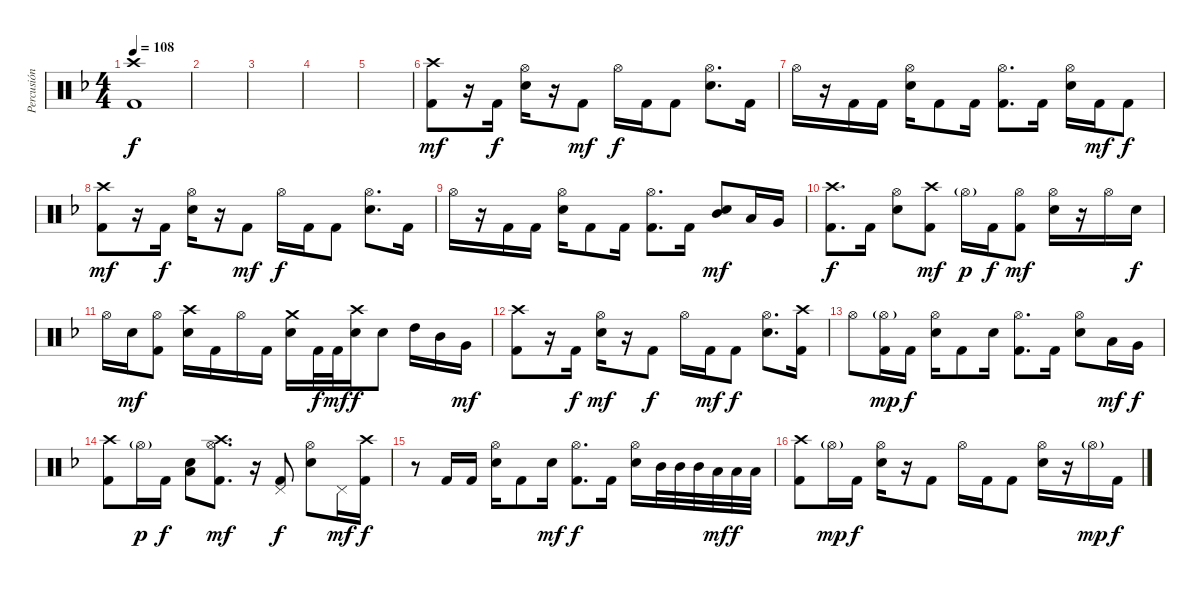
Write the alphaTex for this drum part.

\track ("Percusión" "Percusión") {instrument percussion}
\staff {score}
\articulation defaults
\ts (4 4)
\tempo 108
\clef neutral
\ks f
("Crash high (hit)" "Kick (hit) 2").1{dy f} |
|
|
|
|
("Crash high (hit)" "Kick (hit) 2").8{dy mf} r.16 "Kick (hit) 2".16{dy f} ("Hi-Hat (open)" "Snare (hit) 2").16 r.16 "Kick (hit) 2".8{dy mf} "Hi-Hat (open)".16{dy f} "Kick (hit) 2".16 "Kick (hit) 2".8 ("Hi-Hat (open)" "Snare (hit) 2").8{d} "Kick (hit) 2".16 |
"Hi-Hat (open)".16 r.16 "Kick (hit) 2".16 "Kick (hit) 2".16 ("Hi-Hat (open)" "Snare (hit) 2").16 "Kick (hit) 2".8 "Kick (hit) 2".16 ("Hi-Hat (open)" "Kick (hit) 2").8{d} "Kick (hit) 2".16 ("Hi-Hat (open)" "Snare (hit) 2").16 "Kick (hit) 2".16{dy mf} "Kick (hit) 2".8{dy f} |
("Crash high (hit)" "Kick (hit) 2").8{dy mf} r.16 "Kick (hit) 2".16{dy f} ("Hi-Hat (open)" "Snare (hit) 2").16 r.16 "Kick (hit) 2".8{dy mf} "Hi-Hat (open)".16{dy f} "Kick (hit) 2".16 "Kick (hit) 2".8 ("Hi-Hat (open)" "Snare (hit) 2").8{d} "Kick (hit) 2".16 |
"Hi-Hat (open)".16 r.16 "Kick (hit) 2".16 "Kick (hit) 2".16 ("Hi-Hat (open)" "Snare (hit) 2").16 "Kick (hit) 2".8 "Kick (hit) 2".16 ("Hi-Hat (open)" "Kick (hit) 2").8{d} "Kick (hit) 2".16 ("Mid Tom (hit)" "Snare (hit) 2").8{dy mf} "Low Tom (hit)".16 "Very Low Tom (hit)".16 |
("Crash high (hit)" "Kick (hit) 2").8{d dy f} "Kick (hit) 2".16 ("Hi-Hat (open)" "Snare (hit) 2").8 ("Crash high (hit)" "Kick (hit) 2").8{dy mf} "Hi-Hat (open)"{g}.16{dy p} "Kick (hit) 2".16{dy f} ("Hi-Hat (open)" "Kick (hit) 2").8{dy mf} ("Hi-Hat (open)" "Snare (hit) 2").16 r.16 "Hi-Hat (open)".16 "Snare (hit) 2".16{dy f} |
"Hi-Hat (open)".16 "Snare (hit) 2".16{dy mf} ("Hi-Hat (open)" "Kick (hit) 2").8 ("Crash high (hit)" "Snare (hit) 2").16 "Kick (hit) 2".16 "Hi-Hat (open)".16 "Kick (hit) 2".16 ("Crash medium (hit)" "Snare (hit) 2").16 "Kick (hit) 2".32{dy f} "Kick (hit) 2".32{dy mf} ("Crash high (hit)" "Snare (hit) 2").16{dy f} "Snare (hit) 2".8 "High Tom (hit)".16 "Mid Tom (hit)".16 "Very Low Tom (hit)".16{dy mf} |
("Crash high (hit)" "Kick (hit) 2").8 r.16 "Kick (hit) 2".16{dy f} ("Hi-Hat (open)" "Snare (hit) 2").16{dy mf} r.16 "Kick (hit) 2".8{dy f} "Hi-Hat (open)".16 "Kick (hit) 2".16{dy mf} "Kick (hit) 2".8{dy f} ("Hi-Hat (open)" "Snare (hit) 2").8{d} ("Crash high (hit)" "Kick (hit) 2").16 |
"Hi-Hat (open)".8 ("Hi-Hat (open)"{g} "Kick (hit) 2").16{dy mp} "Kick (hit) 2".16{dy f} ("Hi-Hat (open)" "Snare (hit) 2").16 "Kick (hit) 2".8 "Snare (hit) 2".16 ("Hi-Hat (open)" "Kick (hit) 2").8{d} "Kick (hit) 2".16 ("Hi-Hat (open)" "Snare (hit) 2").8 "Low Tom (hit)".16{dy mf} "Very Low Tom (hit)".16{dy f} |
("Crash high (hit)" "Kick (hit) 2").8 "Hi-Hat (open)"{g}.16{dy p} "Kick (hit) 2".16{dy f} ("Low Floor Tom (hit)" "Snare (hit) 2").8 ("Crash high (hit)" "Hi-Hat (open)" "Kick (hit) 2").8{d dy mf} r.16 ("Pedal Hi-Hat (hit)" "Kick (hit) 2").8{dy f} ("Hi-Hat (open)" "Snare (hit) 2").8 "Pedal Hi-Hat (hit)".16{dy mf} ("Crash high (hit)" "Kick (hit) 2").16{dy f} |
r.8 "Kick (hit) 2".16 "Kick (hit) 2".16 ("Hi-Hat (open)" "Snare (hit) 2").16 "Kick (hit) 2".8 "Snare (hit) 2".16{dy mf} ("Hi-Hat (open)" "Kick (hit) 2").8{d dy f} "Kick (hit) 2".16 ("Hi-Hat (open)" "Snare (hit) 2").16 "Mid Tom (hit)".32 "Mid Tom (hit)".32 "Mid Tom (hit)".32 "Low Tom (hit)".32{dy mf} "Low Tom (hit)".32{dy f} "Low Tom (hit)".32 |
("Crash high (hit)" "Kick (hit) 2").8 "Hi-Hat (open)"{g}.16{dy mp} "Kick (hit) 2".16{dy f} ("Hi-Hat (open)" "Snare (hit) 2").16 r.16 "Kick (hit) 2".8 "Hi-Hat (open)".16 "Kick (hit) 2".16 "Kick (hit) 2".8 ("Hi-Hat (open)" "Snare (hit) 2").16 r.16 "Hi-Hat (open)"{g}.16{dy mp} "Kick (hit) 2".16{dy f}
